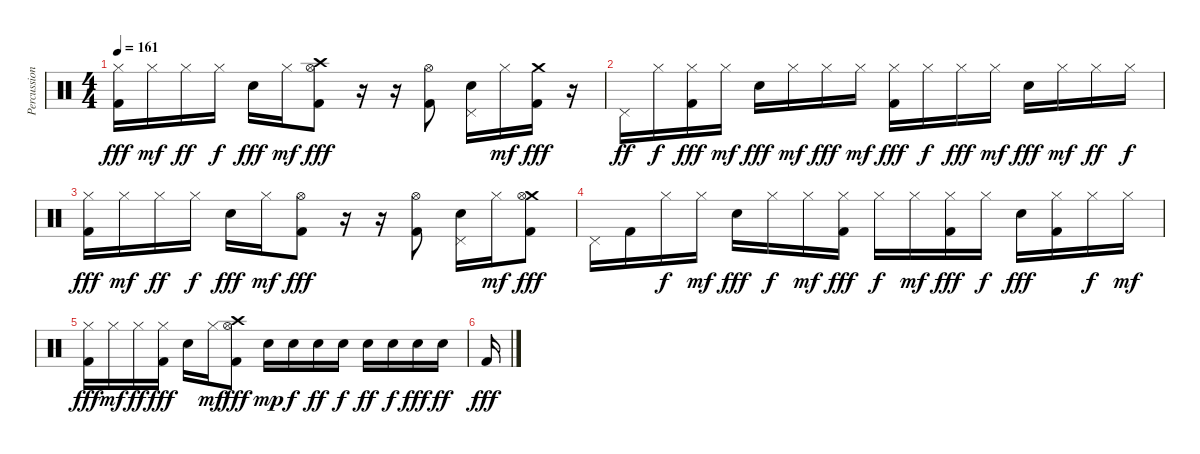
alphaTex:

\track ("Percussion" "Percussion") {instrument percussion}
\staff {score}
\articulation defaults
\ts (4 4)
\tempo 161
\clef neutral
\ks c
("Hi-Hat (closed)" "Kick (hit) 2").16{dy fff} "Hi-Hat (closed)".16{dy mf} "Hi-Hat (closed)".16{dy ff} "Hi-Hat (closed)".16{dy f} "Electric Snare (hit)".16{dy fff} "Hi-Hat (closed)".16{dy mf} ("Crash high (hit)" "Hi-Hat (open)" "Kick (hit) 2").8{dy fff} r.16 r.16 ("Hi-Hat (open)" "Kick (hit) 2").8 ("Pedal Hi-Hat (hit)" "Electric Snare (hit)").16 "Hi-Hat (closed)".16{dy mf} ("Crash medium (hit)" "Kick (hit) 2").16{dy fff} r.16 |
"Pedal Hi-Hat (hit)".16{dy ff} "Hi-Hat (closed)".16{dy f} ("Hi-Hat (closed)" "Kick (hit) 2").16{dy fff} "Hi-Hat (closed)".16{dy mf} "Electric Snare (hit)".16{dy fff} "Hi-Hat (closed)".16{dy mf} "Hi-Hat (closed)".16{dy fff} "Hi-Hat (closed)".16{dy mf} ("Hi-Hat (closed)" "Kick (hit) 2").16{dy fff} "Hi-Hat (closed)".16{dy f} "Hi-Hat (closed)".16{dy fff} "Hi-Hat (closed)".16{dy mf} "Electric Snare (hit)".16{dy fff} "Hi-Hat (closed)".16{dy mf} "Hi-Hat (closed)".16{dy ff} "Hi-Hat (closed)".16{dy f} |
("Hi-Hat (closed)" "Kick (hit) 2").16{dy fff} "Hi-Hat (closed)".16{dy mf} "Hi-Hat (closed)".16{dy ff} "Hi-Hat (closed)".16{dy f} "Electric Snare (hit)".16{dy fff} "Hi-Hat (closed)".16{dy mf} ("Hi-Hat (open)" "Kick (hit) 2").8{dy fff} r.16 r.16 ("Hi-Hat (open)" "Kick (hit) 2").8 ("Pedal Hi-Hat (hit)" "Electric Snare (hit)").16 "Hi-Hat (closed)".16{dy mf} ("Crash medium (hit)" "Hi-Hat (open)" "Kick (hit) 2").8{dy fff} |
"Pedal Hi-Hat (hit)".16 "Kick (hit) 2".16 "Hi-Hat (closed)".16{dy f} "Hi-Hat (closed)".16{dy mf} "Electric Snare (hit)".16{dy fff} "Hi-Hat (closed)".16{dy f} "Hi-Hat (closed)".16{dy mf} ("Hi-Hat (closed)" "Kick (hit) 2").16{dy fff} "Hi-Hat (closed)".16{dy f} "Hi-Hat (closed)".16{dy mf} ("Hi-Hat (closed)" "Kick (hit) 2").16{dy fff} "Hi-Hat (closed)".16{dy f} "Electric Snare (hit)".16{dy fff} ("Hi-Hat (closed)" "Kick (hit) 2").16 "Hi-Hat (closed)".16{dy f} "Hi-Hat (closed)".16{dy mf} |
("Hi-Hat (closed)" "Kick (hit) 2").16{dy fff} "Hi-Hat (closed)".16{dy mf} "Hi-Hat (closed)".16{dy ff} ("Hi-Hat (closed)" "Kick (hit) 2").16{dy fff} "Electric Snare (hit)".16 "Hi-Hat (closed)".16{dy mf} ("Crash high (hit)" "Hi-Hat (open)" "Kick (hit) 2").8{dy fff} "Electric Snare (hit)".16{dy mp} "Electric Snare (hit)".16{dy f} "Electric Snare (hit)".16{dy ff} "Electric Snare (hit)".16{dy f} "Electric Snare (hit)".16{dy ff} "Electric Snare (hit)".16{dy f} "Electric Snare (hit)".16{dy fff} "Electric Snare (hit)".16{dy ff} |
"Kick (hit) 2".16{dy fff}
